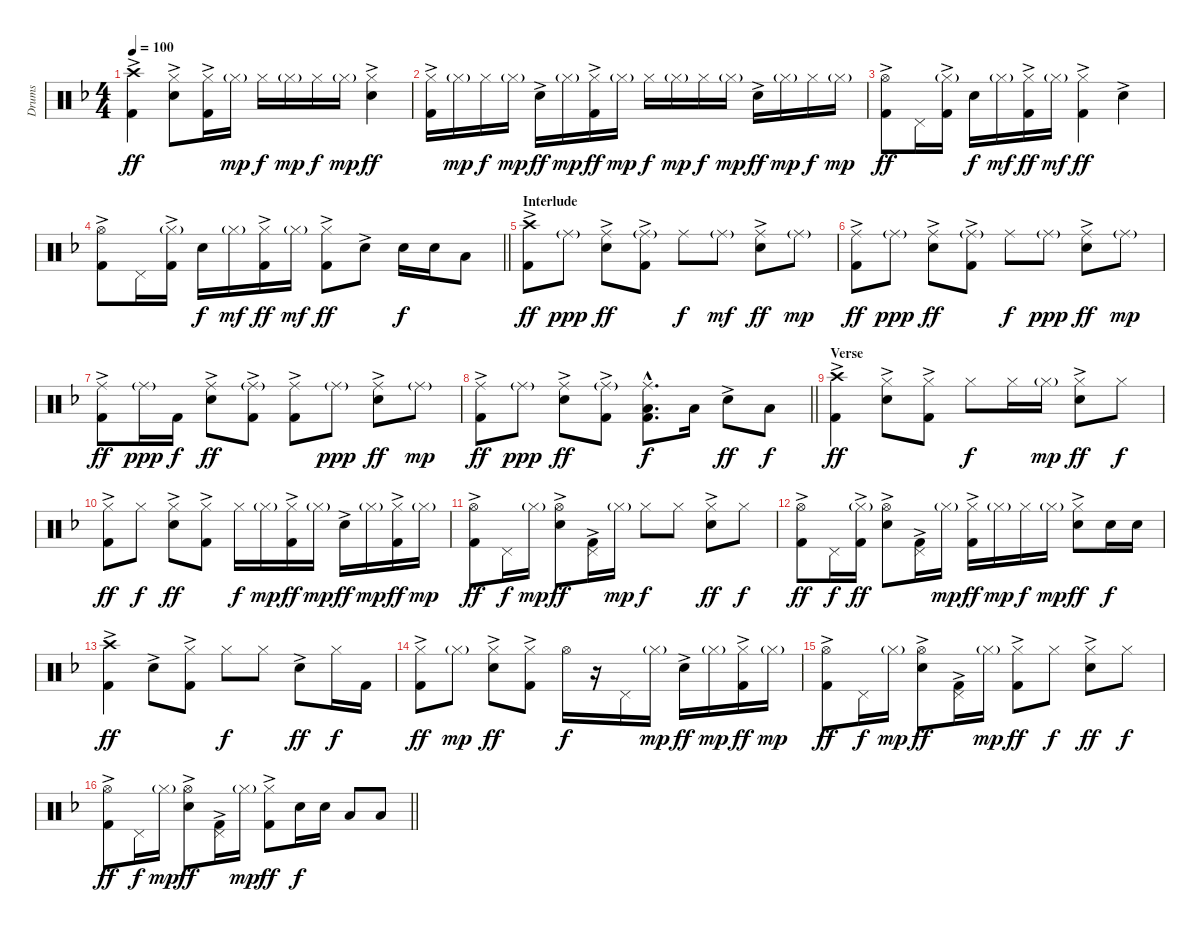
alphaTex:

\track ("Drums" "Drums") {instrument percussion}
\staff {score}
\articulation defaults
\ts (4 4)
\tempo 100
\clef neutral
\ks f
("Crash high (hit)" "Kick (hit) 2"{ac}).4{dy ff} ("Hi-Hat (closed)" "Snare (hit) 2"{ac}).8 ("Hi-Hat (closed)" "Kick (hit) 2"{ac}).16 "Hi-Hat (closed)"{g}.16{dy mp} "Hi-Hat (closed)".16{dy f} "Hi-Hat (closed)"{g}.16{dy mp} "Hi-Hat (closed)".16{dy f} "Hi-Hat (closed)"{g}.16{dy mp} ("Hi-Hat (closed)" "Snare (hit) 2"{ac}).4{dy ff} |
("Hi-Hat (closed)" "Kick (hit) 2"{ac}).16 "Hi-Hat (closed)"{g}.16{dy mp} "Hi-Hat (closed)".16{dy f} "Hi-Hat (closed)"{g}.16{dy mp} "Snare (hit) 2"{ac}.16{dy ff} "Hi-Hat (closed)"{g}.16{dy mp} ("Hi-Hat (closed)" "Kick (hit) 2"{ac}).16{dy ff} "Hi-Hat (closed)"{g}.16{dy mp} "Hi-Hat (closed)".16{dy f} "Hi-Hat (closed)"{g}.16{dy mp} "Hi-Hat (closed)".16{dy f} "Hi-Hat (closed)"{g}.16{dy mp} "Snare (hit) 2"{ac}.16{dy ff} "Hi-Hat (closed)"{g}.16{dy mp} "Hi-Hat (closed)".16{dy f} "Hi-Hat (closed)"{g}.16{dy mp} |
("Hi-Hat (open)" "Kick (hit) 2"{ac}).8{dy ff} "Pedal Hi-Hat (hit)".16 ("Hi-Hat (closed)"{g} "Kick (hit) 2"{ac}).16 "Snare (hit) 2".16{dy f} "Hi-Hat (closed)"{g}.16{dy mf} ("Hi-Hat (closed)" "Kick (hit) 2"{ac}).16{dy ff} "Hi-Hat (closed)"{g}.16{dy mf} ("Hi-Hat (closed)" "Kick (hit) 2"{ac}).4{dy ff} "Snare (hit) 2"{ac}.4 |
\barLineRight lightlight
("Hi-Hat (open)" "Kick (hit) 2"{ac}).8 "Pedal Hi-Hat (hit)".16 ("Hi-Hat (closed)"{g} "Kick (hit) 2"{ac}).16 "Snare (hit) 2".16{dy f} "Hi-Hat (closed)"{g}.16{dy mf} ("Hi-Hat (closed)" "Kick (hit) 2"{ac}).16{dy ff} "Hi-Hat (closed)"{g}.16{dy mf} ("Hi-Hat (closed)" "Kick (hit) 2"{ac}).8{dy ff} "Snare (hit) 2"{ac}.8 "Snare (hit) 2".16{dy f} "Snare (hit) 2".16 "Low Tom (hit)".8 |
\section ("" "Interlude")
("Crash high (hit)" "Kick (hit) 2"{ac}).8{dy ff} "Ride (middle)"{g}.8{dy ppp} ("Ride (middle)" "Snare (hit) 2"{ac}).8{dy ff} ("Ride (middle)"{g} "Kick (hit) 2"{ac}).8 "Ride (middle)".8{dy f} "Ride (middle)"{g}.8{dy mf} ("Ride (middle)" "Snare (hit) 2"{ac}).8{dy ff} "Ride (middle)"{g}.8{dy mp} |
("Ride (middle)" "Kick (hit) 2"{ac}).8{dy ff} "Ride (middle)"{g}.8{dy ppp} ("Ride (middle)" "Snare (hit) 2"{ac}).8{dy ff} ("Ride (middle)"{g} "Kick (hit) 2"{ac}).8 "Ride (middle)".8{dy f} "Ride (middle)"{g}.8{dy ppp} ("Ride (middle)" "Snare (hit) 2"{ac}).8{dy ff} "Ride (middle)"{g}.8{dy mp} |
("Ride (middle)" "Kick (hit) 2"{ac}).8{dy ff} "Ride (middle)"{g}.16{dy ppp} "Kick (hit) 2".16{dy f} ("Ride (middle)" "Snare (hit) 2"{ac}).8{dy ff} ("Ride (middle)"{g} "Kick (hit) 2"{ac}).8 ("Ride (middle)" "Kick (hit) 2"{ac}).8 "Ride (middle)"{g}.8{dy ppp} ("Ride (middle)" "Snare (hit) 2"{ac}).8{dy ff} "Ride (middle)"{g}.8{dy mp} |
\barLineRight lightlight
("Ride (middle)" "Kick (hit) 2"{ac}).8{dy ff} "Ride (middle)"{g}.8{dy ppp} ("Ride (middle)" "Snare (hit) 2"{ac}).8{dy ff} ("Ride (middle)"{g} "Kick (hit) 2"{ac}).8 ("Ride (middle)"{hac} "Low Tom (hit)"{hac} "Kick (hit) 2"{hac}).8{d dy f} "Low Tom (hit)".16 "Snare (hit) 2"{ac}.8{dy ff} "Low Floor Tom (hit)".8{dy f} |
\section ("" "Verse")
("Crash high (hit)" "Kick (hit) 2"{ac}).4{dy ff} ("Hi-Hat (closed)" "Snare (hit) 2"{ac}).8 ("Hi-Hat (closed)" "Kick (hit) 2"{ac}).8 "Hi-Hat (closed)".8{dy f} "Hi-Hat (closed)".16 "Hi-Hat (closed)"{g}.16{dy mp} ("Hi-Hat (closed)" "Snare (hit) 2"{ac}).8{dy ff} "Hi-Hat (closed)".8{dy f} |
("Hi-Hat (closed)" "Kick (hit) 2"{ac}).8{dy ff} "Hi-Hat (closed)".8{dy f} ("Hi-Hat (closed)" "Snare (hit) 2"{ac}).8{dy ff} ("Hi-Hat (closed)" "Kick (hit) 2"{ac}).8 "Hi-Hat (closed)".16{dy f} "Hi-Hat (closed)"{g}.16{dy mp} ("Hi-Hat (closed)" "Kick (hit) 2"{ac}).16{dy ff} "Hi-Hat (closed)"{g}.16{dy mp} "Snare (hit) 2"{ac}.16{dy ff} "Hi-Hat (closed)"{g}.16{dy mp} ("Hi-Hat (closed)" "Kick (hit) 2"{ac}).16{dy ff} "Hi-Hat (closed)"{g}.16{dy mp} |
("Hi-Hat (open)" "Kick (hit) 2"{ac}).8{dy ff} "Pedal Hi-Hat (hit)".16{dy f} "Hi-Hat (closed)"{g}.16{dy mp} ("Hi-Hat (open)" "Snare (hit) 2"{ac}).8{dy ff} ("Pedal Hi-Hat (hit)" "Kick (hit) 2"{ac}).16 "Hi-Hat (closed)"{g}.16{dy mp} "Hi-Hat (closed)".8{dy f} "Hi-Hat (closed)".8 ("Hi-Hat (closed)" "Snare (hit) 2"{ac}).8{dy ff} "Hi-Hat (closed)".8{dy f} |
("Hi-Hat (open)" "Kick (hit) 2"{ac}).8{dy ff} "Pedal Hi-Hat (hit)".16{dy f} ("Hi-Hat (closed)"{g} "Kick (hit) 2"{ac}).16{dy ff} ("Hi-Hat (open)" "Snare (hit) 2"{ac}).8 ("Pedal Hi-Hat (hit)" "Kick (hit) 2"{ac}).16 "Hi-Hat (closed)"{g}.16{dy mp} ("Hi-Hat (closed)" "Kick (hit) 2"{ac}).16{dy ff} "Hi-Hat (closed)"{g}.16{dy mp} "Hi-Hat (closed)".16{dy f} "Hi-Hat (closed)"{g}.16{dy mp} ("Hi-Hat (closed)" "Snare (hit) 2"{ac}).8{dy ff} "Snare (hit) 2".16{dy f} "Snare (hit) 2".16 |
("Crash high (hit)" "Kick (hit) 2"{ac}).4{dy ff} "Snare (hit) 2"{ac}.8 ("Hi-Hat (closed)" "Kick (hit) 2"{ac}).8 "Hi-Hat (closed)".8{dy f} "Hi-Hat (closed)".8 "Snare (hit) 2"{ac}.8{dy ff} "Hi-Hat (closed)".16{dy f} "Kick (hit) 2".16 |
("Hi-Hat (closed)" "Kick (hit) 2"{ac}).8{dy ff} "Hi-Hat (closed)"{g}.8{dy mp} ("Hi-Hat (closed)" "Snare (hit) 2"{ac}).8{dy ff} ("Hi-Hat (closed)" "Kick (hit) 2"{ac}).8 "Hi-Hat (open)".16{dy f} r.16 "Pedal Hi-Hat (hit)".16 "Hi-Hat (closed)"{g}.16{dy mp} "Snare (hit) 2"{ac}.16{dy ff} "Hi-Hat (closed)"{g}.16{dy mp} ("Hi-Hat (closed)" "Kick (hit) 2"{ac}).16{dy ff} "Hi-Hat (closed)"{g}.16{dy mp} |
("Hi-Hat (open)" "Kick (hit) 2"{ac}).8{dy ff} "Pedal Hi-Hat (hit)".16{dy f} "Hi-Hat (closed)"{g}.16{dy mp} ("Hi-Hat (open)" "Snare (hit) 2"{ac}).8{dy ff} ("Pedal Hi-Hat (hit)" "Kick (hit) 2"{ac}).16 "Hi-Hat (closed)"{g}.16{dy mp} ("Hi-Hat (closed)" "Kick (hit) 2"{ac}).8{dy ff} "Hi-Hat (closed)".8{dy f} ("Hi-Hat (closed)" "Snare (hit) 2"{ac}).8{dy ff} "Hi-Hat (closed)".8{dy f} |
\barLineRight lightlight
("Hi-Hat (open)" "Kick (hit) 2"{ac}).8{dy ff} "Pedal Hi-Hat (hit)".16{dy f} "Hi-Hat (closed)"{g}.16{dy mp} ("Hi-Hat (open)" "Snare (hit) 2"{ac}).8{dy ff} ("Pedal Hi-Hat (hit)" "Kick (hit) 2"{ac}).16 "Hi-Hat (closed)"{g}.16{dy mp} ("Hi-Hat (closed)" "Kick (hit) 2"{ac}).8{dy ff} "Snare (hit) 2".16{dy f} "Snare (hit) 2".16 "Low Tom (hit)".8 "Low Floor Tom (hit)".8
